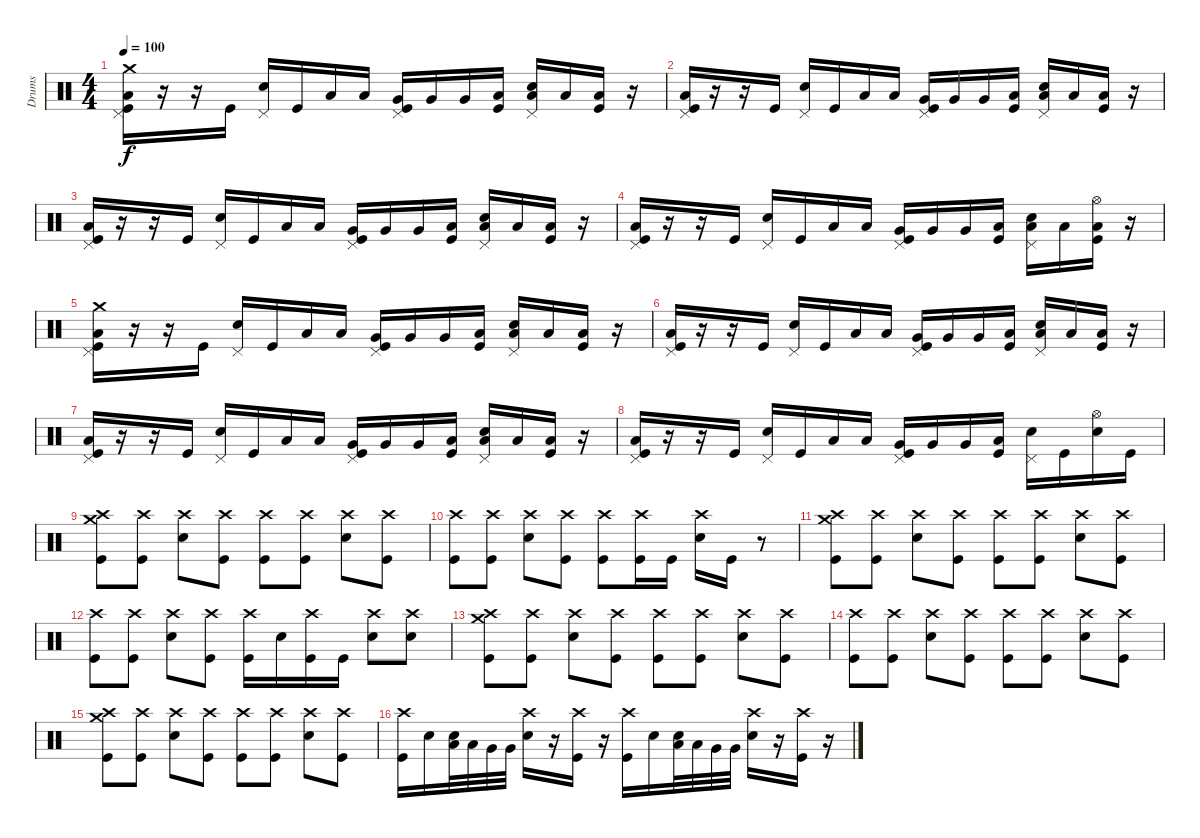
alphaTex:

\track ("Drums" "Drums") {instrument percussion}
\staff {score}
\articulation defaults
\ts (4 4)
\tempo 100
\clef neutral
\ks c
("Crash medium (hit)" "Pedal Hi-Hat (hit)" "Low Floor Tom (hit)" "Kick (hit)").16{dy f} r.16 r.16 "Kick (hit)".16 ("Pedal Hi-Hat (hit)" "Snare (hit) 2").16 "Kick (hit)".16 "Low Tom (hit)".16 "Low Tom (hit)".16 ("Pedal Hi-Hat (hit)" "Very Low Tom (hit)" "Kick (hit)").16 "Very Low Tom (hit)".16 "Very Low Tom (hit)".16 ("Low Floor Tom (hit)" "Kick (hit)").16 ("Pedal Hi-Hat (hit)" "Low Floor Tom (hit)" "Snare (hit) 2").16 "Low Floor Tom (hit)".16 ("Low Floor Tom (hit)" "Kick (hit)").16 r.16 |
("Pedal Hi-Hat (hit)" "Low Floor Tom (hit)" "Kick (hit)").16 r.16 r.16 "Kick (hit)".16 ("Pedal Hi-Hat (hit)" "Snare (hit) 2").16 "Kick (hit)".16 "Low Tom (hit)".16 "Low Tom (hit)".16 ("Pedal Hi-Hat (hit)" "Very Low Tom (hit)" "Kick (hit)").16 "Very Low Tom (hit)".16 "Very Low Tom (hit)".16 ("Low Floor Tom (hit)" "Kick (hit)").16 ("Pedal Hi-Hat (hit)" "Low Floor Tom (hit)" "Snare (hit) 2").16 "Low Floor Tom (hit)".16 ("Low Floor Tom (hit)" "Kick (hit)").16 r.16 |
("Pedal Hi-Hat (hit)" "Low Floor Tom (hit)" "Kick (hit)").16 r.16 r.16 "Kick (hit)".16 ("Pedal Hi-Hat (hit)" "Snare (hit) 2").16 "Kick (hit)".16 "Low Tom (hit)".16 "Low Tom (hit)".16 ("Pedal Hi-Hat (hit)" "Very Low Tom (hit)" "Kick (hit)").16 "Very Low Tom (hit)".16 "Very Low Tom (hit)".16 ("Low Floor Tom (hit)" "Kick (hit)").16 ("Pedal Hi-Hat (hit)" "Low Floor Tom (hit)" "Snare (hit) 2").16 "Low Floor Tom (hit)".16 ("Low Floor Tom (hit)" "Kick (hit)").16 r.16 |
("Pedal Hi-Hat (hit)" "Low Floor Tom (hit)" "Kick (hit)").16 r.16 r.16 "Kick (hit)".16 ("Pedal Hi-Hat (hit)" "Snare (hit) 2").16 "Kick (hit)".16 "Low Tom (hit)".16 "Low Tom (hit)".16 ("Pedal Hi-Hat (hit)" "Very Low Tom (hit)" "Kick (hit)").16 "Very Low Tom (hit)".16 "Very Low Tom (hit)".16 ("Low Floor Tom (hit)" "Kick (hit)").16 ("Pedal Hi-Hat (hit)" "Low Floor Tom (hit)" "Snare (hit) 2").16 "Low Floor Tom (hit)".16 ("Hi-Hat (open)" "Low Floor Tom (hit)" "Kick (hit)").16 r.16 |
("Crash medium (hit)" "Pedal Hi-Hat (hit)" "Low Floor Tom (hit)" "Kick (hit)").16 r.16 r.16 "Kick (hit)".16 ("Pedal Hi-Hat (hit)" "Snare (hit) 2").16 "Kick (hit)".16 "Low Tom (hit)".16 "Low Tom (hit)".16 ("Pedal Hi-Hat (hit)" "Very Low Tom (hit)" "Kick (hit)").16 "Very Low Tom (hit)".16 "Very Low Tom (hit)".16 ("Low Floor Tom (hit)" "Kick (hit)").16 ("Pedal Hi-Hat (hit)" "Low Floor Tom (hit)" "Snare (hit) 2").16 "Low Floor Tom (hit)".16 ("Low Floor Tom (hit)" "Kick (hit)").16 r.16 |
("Pedal Hi-Hat (hit)" "Low Floor Tom (hit)" "Kick (hit)").16 r.16 r.16 "Kick (hit)".16 ("Pedal Hi-Hat (hit)" "Snare (hit) 2").16 "Kick (hit)".16 "Low Tom (hit)".16 "Low Tom (hit)".16 ("Pedal Hi-Hat (hit)" "Very Low Tom (hit)" "Kick (hit)").16 "Very Low Tom (hit)".16 "Very Low Tom (hit)".16 ("Low Floor Tom (hit)" "Kick (hit)").16 ("Pedal Hi-Hat (hit)" "Low Floor Tom (hit)" "Snare (hit) 2").16 "Low Floor Tom (hit)".16 ("Low Floor Tom (hit)" "Kick (hit)").16 r.16 |
("Pedal Hi-Hat (hit)" "Low Floor Tom (hit)" "Kick (hit)").16 r.16 r.16 "Kick (hit)".16 ("Pedal Hi-Hat (hit)" "Snare (hit) 2").16 "Kick (hit)".16 "Low Tom (hit)".16 "Low Tom (hit)".16 ("Pedal Hi-Hat (hit)" "Very Low Tom (hit)" "Kick (hit)").16 "Very Low Tom (hit)".16 "Very Low Tom (hit)".16 ("Low Floor Tom (hit)" "Kick (hit)").16 ("Pedal Hi-Hat (hit)" "Low Floor Tom (hit)" "Snare (hit) 2").16 "Low Floor Tom (hit)".16 ("Low Floor Tom (hit)" "Kick (hit)").16 r.16 |
("Pedal Hi-Hat (hit)" "Low Floor Tom (hit)" "Kick (hit)").16 r.16 r.16 "Kick (hit)".16 ("Pedal Hi-Hat (hit)" "Snare (hit) 2").16 "Kick (hit)".16 "Low Tom (hit)".16 "Low Tom (hit)".16 ("Pedal Hi-Hat (hit)" "Very Low Tom (hit)" "Kick (hit)").16 "Very Low Tom (hit)".16 "Very Low Tom (hit)".16 ("Low Floor Tom (hit)" "Kick (hit)").16 ("Pedal Hi-Hat (hit)" "Snare (hit) 2").16 "Kick (hit)".16 ("Hi-Hat (open)" "Snare (hit) 2").16 "Kick (hit)".16 |
("Crash medium (hit)" "Crash high (hit)" "Kick (hit)").8 ("Crash high (hit)" "Kick (hit)").8 ("Crash high (hit)" "Snare (hit) 2").8 ("Crash high (hit)" "Kick (hit)").8 ("Crash high (hit)" "Kick (hit)").8 ("Crash high (hit)" "Kick (hit)").8 ("Crash high (hit)" "Snare (hit) 2").8 ("Crash high (hit)" "Kick (hit)").8 |
("Crash high (hit)" "Kick (hit)").8 ("Crash high (hit)" "Kick (hit)").8 ("Crash high (hit)" "Snare (hit) 2").8 ("Crash high (hit)" "Kick (hit)").8 ("Crash high (hit)" "Kick (hit)").8 ("Crash high (hit)" "Kick (hit)").16 "Kick (hit)".16 ("Crash high (hit)" "Snare (hit) 2").16 "Kick (hit)".16 r.8 |
("Crash medium (hit)" "Crash high (hit)" "Kick (hit)").8 ("Crash high (hit)" "Kick (hit)").8 ("Crash high (hit)" "Snare (hit) 2").8 ("Crash high (hit)" "Kick (hit)").8 ("Crash high (hit)" "Kick (hit)").8 ("Crash high (hit)" "Kick (hit)").8 ("Crash high (hit)" "Snare (hit) 2").8 ("Crash high (hit)" "Kick (hit)").8 |
("Crash high (hit)" "Kick (hit)").8 ("Crash high (hit)" "Kick (hit)").8 ("Crash high (hit)" "Snare (hit) 2").8 ("Crash high (hit)" "Kick (hit)").8 ("Crash high (hit)" "Kick (hit)").16 "Snare (hit) 2".16 ("Crash high (hit)" "Kick (hit)").16 "Kick (hit)".16 ("Crash high (hit)" "Snare (hit) 2").8 ("Crash high (hit)" "Snare (hit) 2").8 |
("Crash medium (hit)" "Crash high (hit)" "Kick (hit)").8 ("Crash high (hit)" "Kick (hit)").8 ("Crash high (hit)" "Snare (hit) 2").8 ("Crash high (hit)" "Kick (hit)").8 ("Crash high (hit)" "Kick (hit)").8 ("Crash high (hit)" "Kick (hit)").8 ("Crash high (hit)" "Snare (hit) 2").8 ("Crash high (hit)" "Kick (hit)").8 |
("Crash high (hit)" "Kick (hit)").8 ("Crash high (hit)" "Kick (hit)").8 ("Crash high (hit)" "Snare (hit) 2").8 ("Crash high (hit)" "Kick (hit)").8 ("Crash high (hit)" "Kick (hit)").8 ("Crash high (hit)" "Kick (hit)").8 ("Crash high (hit)" "Snare (hit) 2").8 ("Crash high (hit)" "Kick (hit)").8 |
("Crash medium (hit)" "Crash high (hit)" "Kick (hit)").8 ("Crash high (hit)" "Kick (hit)").8 ("Crash high (hit)" "Snare (hit) 2").8 ("Crash high (hit)" "Kick (hit)").8 ("Crash high (hit)" "Kick (hit)").8 ("Crash high (hit)" "Kick (hit)").8 ("Crash high (hit)" "Snare (hit) 2").8 ("Crash high (hit)" "Kick (hit)").8 |
("Crash high (hit)" "Kick (hit)").16 "Snare (hit) 2".16 ("Low Tom (hit)" "Snare (hit) 2").32 "Low Tom (hit)".32 "Very Low Tom (hit)".32 "Very Low Tom (hit)".32 ("Crash high (hit)" "Snare (hit) 2").16 r.16 ("Crash high (hit)" "Kick (hit)").16 r.16 ("Crash high (hit)" "Kick (hit)").16 "Snare (hit) 2".16 ("Low Tom (hit)" "Snare (hit) 2").32 "Low Tom (hit)".32 "Very Low Tom (hit)".32 "Very Low Tom (hit)".32 ("Crash high (hit)" "Snare (hit) 2").16 r.16 ("Crash high (hit)" "Kick (hit)").16 r.16
